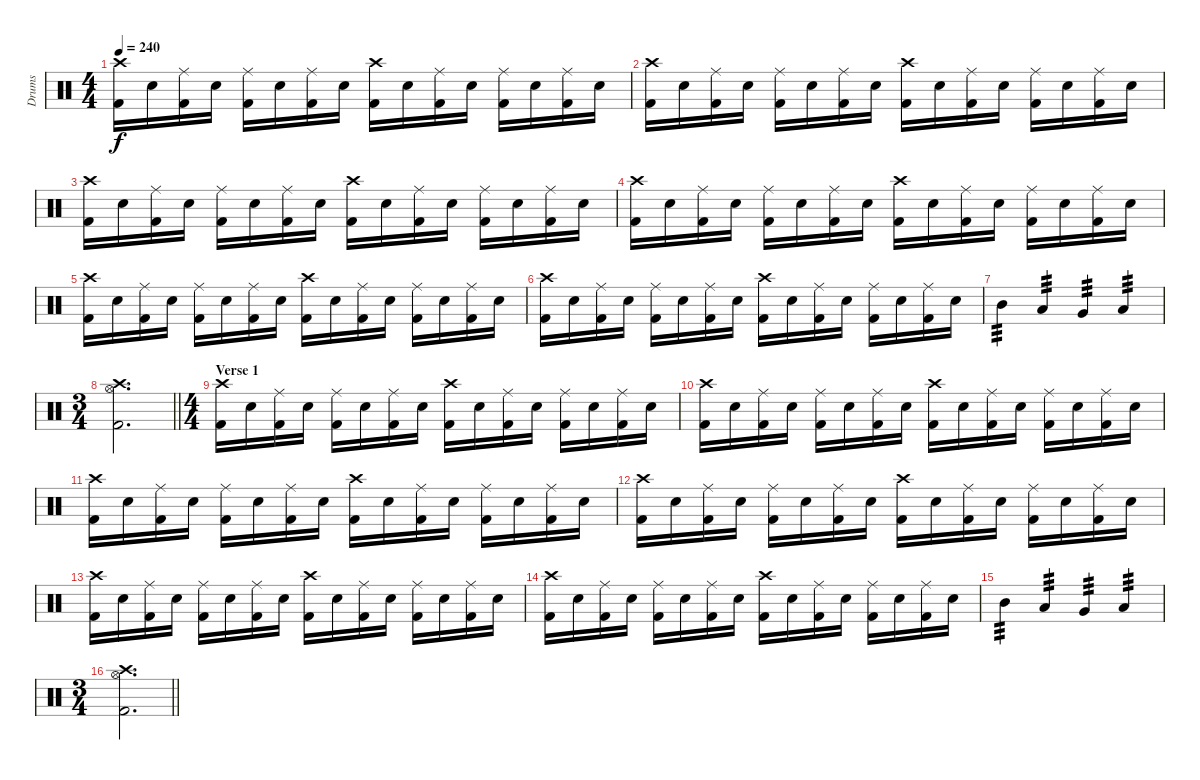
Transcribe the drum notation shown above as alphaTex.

\track ("Drums" "Drums") {instrument percussion}
\staff {score}
\articulation defaults
\ts (4 4)
\tempo 240
\clef neutral
\ks c
("Crash high (hit)" "Kick (hit) 2").16{dy f} "Electric Snare (hit)".16 ("Ride (middle)" "Kick (hit) 2").16 "Electric Snare (hit)".16 ("Ride (middle)" "Kick (hit) 2").16 "Electric Snare (hit)".16 ("Ride (middle)" "Kick (hit) 2").16 "Electric Snare (hit)".16 ("Crash high (hit)" "Kick (hit) 2").16 "Electric Snare (hit)".16 ("Ride (middle)" "Kick (hit) 2").16 "Electric Snare (hit)".16 ("Ride (middle)" "Kick (hit) 2").16 "Electric Snare (hit)".16 ("Ride (middle)" "Kick (hit) 2").16 "Electric Snare (hit)".16 |
("Crash high (hit)" "Kick (hit) 2").16 "Electric Snare (hit)".16 ("Ride (middle)" "Kick (hit) 2").16 "Electric Snare (hit)".16 ("Ride (middle)" "Kick (hit) 2").16 "Electric Snare (hit)".16 ("Ride (middle)" "Kick (hit) 2").16 "Electric Snare (hit)".16 ("Crash high (hit)" "Kick (hit) 2").16 "Electric Snare (hit)".16 ("Ride (middle)" "Kick (hit) 2").16 "Electric Snare (hit)".16 ("Ride (middle)" "Kick (hit) 2").16 "Electric Snare (hit)".16 ("Ride (middle)" "Kick (hit) 2").16 "Electric Snare (hit)".16 |
("Crash high (hit)" "Kick (hit) 2").16 "Electric Snare (hit)".16 ("Ride (middle)" "Kick (hit) 2").16 "Electric Snare (hit)".16 ("Ride (middle)" "Kick (hit) 2").16 "Electric Snare (hit)".16 ("Ride (middle)" "Kick (hit) 2").16 "Electric Snare (hit)".16 ("Crash high (hit)" "Kick (hit) 2").16 "Electric Snare (hit)".16 ("Ride (middle)" "Kick (hit) 2").16 "Electric Snare (hit)".16 ("Ride (middle)" "Kick (hit) 2").16 "Electric Snare (hit)".16 ("Ride (middle)" "Kick (hit) 2").16 "Electric Snare (hit)".16 |
("Crash high (hit)" "Kick (hit) 2").16 "Electric Snare (hit)".16 ("Ride (middle)" "Kick (hit) 2").16 "Electric Snare (hit)".16 ("Ride (middle)" "Kick (hit) 2").16 "Electric Snare (hit)".16 ("Ride (middle)" "Kick (hit) 2").16 "Electric Snare (hit)".16 ("Crash high (hit)" "Kick (hit) 2").16 "Electric Snare (hit)".16 ("Ride (middle)" "Kick (hit) 2").16 "Electric Snare (hit)".16 ("Ride (middle)" "Kick (hit) 2").16 "Electric Snare (hit)".16 ("Ride (middle)" "Kick (hit) 2").16 "Electric Snare (hit)".16 |
("Crash high (hit)" "Kick (hit) 2").16 "Electric Snare (hit)".16 ("Ride (middle)" "Kick (hit) 2").16 "Electric Snare (hit)".16 ("Ride (middle)" "Kick (hit) 2").16 "Electric Snare (hit)".16 ("Ride (middle)" "Kick (hit) 2").16 "Electric Snare (hit)".16 ("Crash high (hit)" "Kick (hit) 2").16 "Electric Snare (hit)".16 ("Ride (middle)" "Kick (hit) 2").16 "Electric Snare (hit)".16 ("Ride (middle)" "Kick (hit) 2").16 "Electric Snare (hit)".16 ("Ride (middle)" "Kick (hit) 2").16 "Electric Snare (hit)".16 |
("Crash high (hit)" "Kick (hit) 2").16 "Electric Snare (hit)".16 ("Ride (middle)" "Kick (hit) 2").16 "Electric Snare (hit)".16 ("Ride (middle)" "Kick (hit) 2").16 "Electric Snare (hit)".16 ("Ride (middle)" "Kick (hit) 2").16 "Electric Snare (hit)".16 ("Crash high (hit)" "Kick (hit) 2").16 "Electric Snare (hit)".16 ("Ride (middle)" "Kick (hit) 2").16 "Electric Snare (hit)".16 ("Ride (middle)" "Kick (hit) 2").16 "Electric Snare (hit)".16 ("Ride (middle)" "Kick (hit) 2").16 "Electric Snare (hit)".16 |
"Mid Tom (hit)".4{tp 3} "Low Tom (hit)".4{tp 3} "Very Low Tom (hit)".4{tp 3} "Low Floor Tom (hit)".4{tp 3} |
\ts (3 4)
\barLineRight lightlight
("Crash high (hit)" "Hi-Hat (open)" "Kick (hit) 2").2{d} |
\ts (4 4)
\section ("" "Verse 1")
("Crash high (hit)" "Kick (hit) 2").16 "Electric Snare (hit)".16 ("Ride (middle)" "Kick (hit) 2").16 "Electric Snare (hit)".16 ("Ride (middle)" "Kick (hit) 2").16 "Electric Snare (hit)".16 ("Ride (middle)" "Kick (hit) 2").16 "Electric Snare (hit)".16 ("Crash high (hit)" "Kick (hit) 2").16 "Electric Snare (hit)".16 ("Ride (middle)" "Kick (hit) 2").16 "Electric Snare (hit)".16 ("Ride (middle)" "Kick (hit) 2").16 "Electric Snare (hit)".16 ("Ride (middle)" "Kick (hit) 2").16 "Electric Snare (hit)".16 |
("Crash high (hit)" "Kick (hit) 2").16 "Electric Snare (hit)".16 ("Ride (middle)" "Kick (hit) 2").16 "Electric Snare (hit)".16 ("Ride (middle)" "Kick (hit) 2").16 "Electric Snare (hit)".16 ("Ride (middle)" "Kick (hit) 2").16 "Electric Snare (hit)".16 ("Crash high (hit)" "Kick (hit) 2").16 "Electric Snare (hit)".16 ("Ride (middle)" "Kick (hit) 2").16 "Electric Snare (hit)".16 ("Ride (middle)" "Kick (hit) 2").16 "Electric Snare (hit)".16 ("Ride (middle)" "Kick (hit) 2").16 "Electric Snare (hit)".16 |
("Crash high (hit)" "Kick (hit) 2").16 "Electric Snare (hit)".16 ("Ride (middle)" "Kick (hit) 2").16 "Electric Snare (hit)".16 ("Ride (middle)" "Kick (hit) 2").16 "Electric Snare (hit)".16 ("Ride (middle)" "Kick (hit) 2").16 "Electric Snare (hit)".16 ("Crash high (hit)" "Kick (hit) 2").16 "Electric Snare (hit)".16 ("Ride (middle)" "Kick (hit) 2").16 "Electric Snare (hit)".16 ("Ride (middle)" "Kick (hit) 2").16 "Electric Snare (hit)".16 ("Ride (middle)" "Kick (hit) 2").16 "Electric Snare (hit)".16 |
("Crash high (hit)" "Kick (hit) 2").16 "Electric Snare (hit)".16 ("Ride (middle)" "Kick (hit) 2").16 "Electric Snare (hit)".16 ("Ride (middle)" "Kick (hit) 2").16 "Electric Snare (hit)".16 ("Ride (middle)" "Kick (hit) 2").16 "Electric Snare (hit)".16 ("Crash high (hit)" "Kick (hit) 2").16 "Electric Snare (hit)".16 ("Ride (middle)" "Kick (hit) 2").16 "Electric Snare (hit)".16 ("Ride (middle)" "Kick (hit) 2").16 "Electric Snare (hit)".16 ("Ride (middle)" "Kick (hit) 2").16 "Electric Snare (hit)".16 |
("Crash high (hit)" "Kick (hit) 2").16 "Electric Snare (hit)".16 ("Ride (middle)" "Kick (hit) 2").16 "Electric Snare (hit)".16 ("Ride (middle)" "Kick (hit) 2").16 "Electric Snare (hit)".16 ("Ride (middle)" "Kick (hit) 2").16 "Electric Snare (hit)".16 ("Crash high (hit)" "Kick (hit) 2").16 "Electric Snare (hit)".16 ("Ride (middle)" "Kick (hit) 2").16 "Electric Snare (hit)".16 ("Ride (middle)" "Kick (hit) 2").16 "Electric Snare (hit)".16 ("Ride (middle)" "Kick (hit) 2").16 "Electric Snare (hit)".16 |
("Crash high (hit)" "Kick (hit) 2").16 "Electric Snare (hit)".16 ("Ride (middle)" "Kick (hit) 2").16 "Electric Snare (hit)".16 ("Ride (middle)" "Kick (hit) 2").16 "Electric Snare (hit)".16 ("Ride (middle)" "Kick (hit) 2").16 "Electric Snare (hit)".16 ("Crash high (hit)" "Kick (hit) 2").16 "Electric Snare (hit)".16 ("Ride (middle)" "Kick (hit) 2").16 "Electric Snare (hit)".16 ("Ride (middle)" "Kick (hit) 2").16 "Electric Snare (hit)".16 ("Ride (middle)" "Kick (hit) 2").16 "Electric Snare (hit)".16 |
"Mid Tom (hit)".4{tp 3} "Low Tom (hit)".4{tp 3} "Very Low Tom (hit)".4{tp 3} "Low Floor Tom (hit)".4{tp 3} |
\ts (3 4)
\barLineRight lightlight
("Crash high (hit)" "Hi-Hat (open)" "Kick (hit) 2").2{d}
